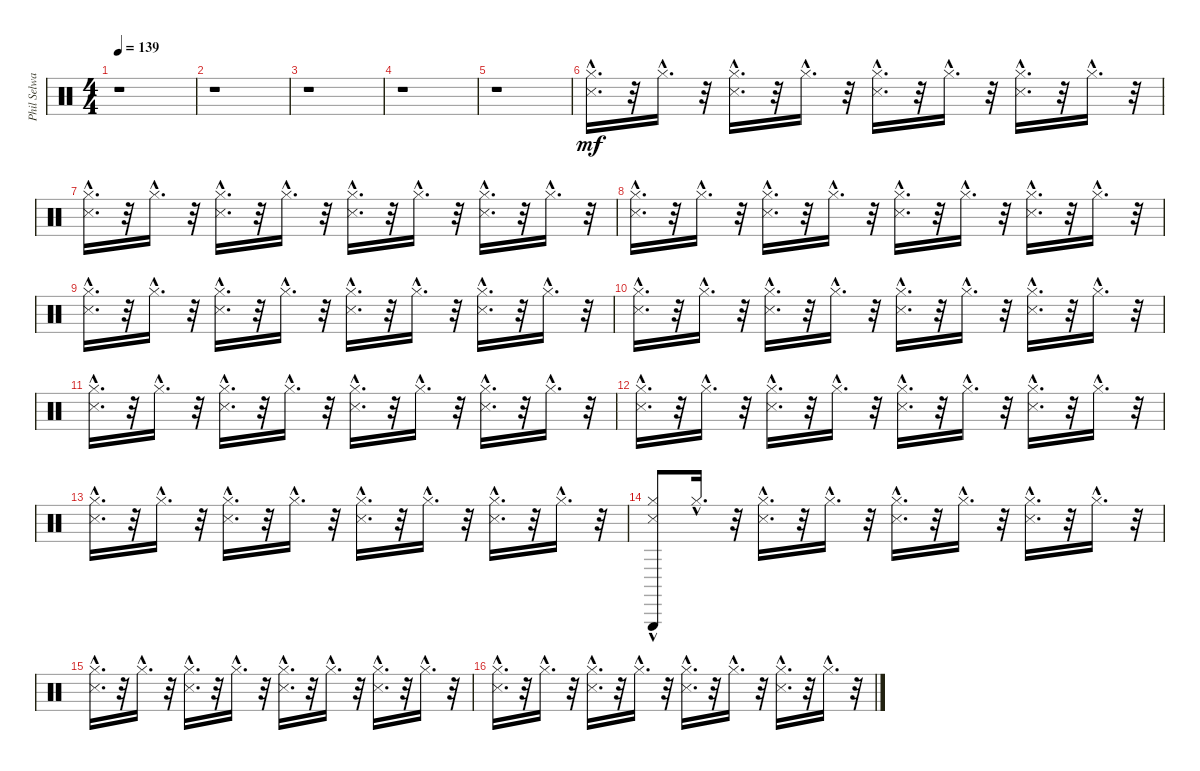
\track ("Phil Selway - Drums" "Phil Selwa") {instrument percussion}
\staff {score}
\articulation defaults
\ts (4 4)
\tempo 139
\clef neutral
\ks c
r.1{dy f} |
r.1 |
r.1 |
r.1 |
r.1 |
("Snare (side stick) 3"{hac} "Hi-Hat (closed)"{hac}).16{d dy mf} r.32 "Hi-Hat (closed)"{hac}.16{d} r.32 ("Snare (side stick) 3"{hac} "Hi-Hat (closed)"{hac}).16{d} r.32 "Hi-Hat (closed)"{hac}.16{d} r.32 ("Snare (side stick) 3"{hac} "Hi-Hat (closed)"{hac}).16{d} r.32 "Hi-Hat (closed)"{hac}.16{d} r.32 ("Snare (side stick) 3"{hac} "Hi-Hat (closed)"{hac}).16{d} r.32 "Hi-Hat (closed)"{hac}.16{d} r.32 |
("Hi-Hat (closed)"{hac} "Snare (side stick) 3"{hac}).16{d} r.32 "Hi-Hat (closed)"{hac}.16{d} r.32 ("Hi-Hat (closed)"{hac} "Snare (side stick) 3"{hac}).16{d} r.32 "Hi-Hat (closed)"{hac}.16{d} r.32 ("Hi-Hat (closed)"{hac} "Snare (side stick) 3"{hac}).16{d} r.32 "Hi-Hat (closed)"{hac}.16{d} r.32 ("Hi-Hat (closed)"{hac} "Snare (side stick) 3"{hac}).16{d} r.32 "Hi-Hat (closed)"{hac}.16{d} r.32 |
("Hi-Hat (closed)"{hac} "Snare (side stick) 3"{hac}).16{d} r.32 "Hi-Hat (closed)"{hac}.16{d} r.32 ("Hi-Hat (closed)"{hac} "Snare (side stick) 3"{hac}).16{d} r.32 "Hi-Hat (closed)"{hac}.16{d} r.32 ("Hi-Hat (closed)"{hac} "Snare (side stick) 3"{hac}).16{d} r.32 "Hi-Hat (closed)"{hac}.16{d} r.32 ("Hi-Hat (closed)"{hac} "Snare (side stick) 3"{hac}).16{d} r.32 "Hi-Hat (closed)"{hac}.16{d} r.32 |
("Hi-Hat (closed)"{hac} "Snare (side stick) 3"{hac}).16{d} r.32 "Hi-Hat (closed)"{hac}.16{d} r.32 ("Hi-Hat (closed)"{hac} "Snare (side stick) 3"{hac}).16{d} r.32 "Hi-Hat (closed)"{hac}.16{d} r.32 ("Hi-Hat (closed)"{hac} "Snare (side stick) 3"{hac}).16{d} r.32 "Hi-Hat (closed)"{hac}.16{d} r.32 ("Hi-Hat (closed)"{hac} "Snare (side stick) 3"{hac}).16{d} r.32 "Hi-Hat (closed)"{hac}.16{d} r.32 |
("Hi-Hat (closed)"{hac} "Snare (side stick) 3"{hac}).16{d} r.32 "Hi-Hat (closed)"{hac}.16{d} r.32 ("Hi-Hat (closed)"{hac} "Snare (side stick) 3"{hac}).16{d} r.32 "Hi-Hat (closed)"{hac}.16{d} r.32 ("Hi-Hat (closed)"{hac} "Snare (side stick) 3"{hac}).16{d} r.32 "Hi-Hat (closed)"{hac}.16{d} r.32 ("Hi-Hat (closed)"{hac} "Snare (side stick) 3"{hac}).16{d} r.32 "Hi-Hat (closed)"{hac}.16{d} r.32 |
("Snare (side stick) 3"{hac} "Hi-Hat (closed)"{hac}).16{d} r.32 "Hi-Hat (closed)"{hac}.16{d} r.32 ("Snare (side stick) 3"{hac} "Hi-Hat (closed)"{hac}).16{d} r.32 "Hi-Hat (closed)"{hac}.16{d} r.32 ("Snare (side stick) 3"{hac} "Hi-Hat (closed)"{hac}).16{d} r.32 "Hi-Hat (closed)"{hac}.16{d} r.32 ("Snare (side stick) 3"{hac} "Hi-Hat (closed)"{hac}).16{d} r.32 "Hi-Hat (closed)"{hac}.16{d} r.32 |
("Snare (side stick) 3"{hac} "Hi-Hat (closed)"{hac}).16{d} r.32 "Hi-Hat (closed)"{hac}.16{d} r.32 ("Snare (side stick) 3"{hac} "Hi-Hat (closed)"{hac}).16{d} r.32 "Hi-Hat (closed)"{hac}.16{d} r.32 ("Snare (side stick) 3"{hac} "Hi-Hat (closed)"{hac}).16{d} r.32 "Hi-Hat (closed)"{hac}.16{d} r.32 ("Snare (side stick) 3"{hac} "Hi-Hat (closed)"{hac}).16{d} r.32 "Hi-Hat (closed)"{hac}.16{d} r.32 |
("Snare (side stick) 3"{hac} "Hi-Hat (closed)"{hac}).16{d} r.32 "Hi-Hat (closed)"{hac}.16{d} r.32 ("Snare (side stick) 3"{hac} "Hi-Hat (closed)"{hac}).16{d} r.32 "Hi-Hat (closed)"{hac}.16{d} r.32 ("Snare (side stick) 3"{hac} "Hi-Hat (closed)"{hac}).16{d} r.32 "Hi-Hat (closed)"{hac}.16{d} r.32 ("Snare (side stick) 3"{hac} "Hi-Hat (closed)"{hac}).16{d} r.32 "Hi-Hat (closed)"{hac}.16{d} r.32 |
("Triangle (hit)"{hac} "Snare (side stick) 3"{hac} "Hi-Hat (closed)"{hac}).8 "Hi-Hat (closed)"{hac}.16{d} r.32 ("Snare (side stick) 3"{hac} "Hi-Hat (closed)"{hac}).16{d} r.32 "Hi-Hat (closed)"{hac}.16{d} r.32 ("Snare (side stick) 3"{hac} "Hi-Hat (closed)"{hac}).16{d} r.32 "Hi-Hat (closed)"{hac}.16{d} r.32 ("Snare (side stick) 3"{hac} "Hi-Hat (closed)"{hac}).16{d} r.32 "Hi-Hat (closed)"{hac}.16{d} r.32 |
("Hi-Hat (closed)"{hac} "Snare (side stick) 3"{hac}).16{d} r.32 "Hi-Hat (closed)"{hac}.16{d} r.32 ("Hi-Hat (closed)"{hac} "Snare (side stick) 3"{hac}).16{d} r.32 "Hi-Hat (closed)"{hac}.16{d} r.32 ("Hi-Hat (closed)"{hac} "Snare (side stick) 3"{hac}).16{d} r.32 "Hi-Hat (closed)"{hac}.16{d} r.32 ("Hi-Hat (closed)"{hac} "Snare (side stick) 3"{hac}).16{d} r.32 "Hi-Hat (closed)"{hac}.16{d} r.32 |
("Hi-Hat (closed)"{hac} "Snare (side stick) 3"{hac}).16{d} r.32 "Hi-Hat (closed)"{hac}.16{d} r.32 ("Hi-Hat (closed)"{hac} "Snare (side stick) 3"{hac}).16{d} r.32 "Hi-Hat (closed)"{hac}.16{d} r.32 ("Hi-Hat (closed)"{hac} "Snare (side stick) 3"{hac}).16{d} r.32 "Hi-Hat (closed)"{hac}.16{d} r.32 ("Hi-Hat (closed)"{hac} "Snare (side stick) 3"{hac}).16{d} r.32 "Hi-Hat (closed)"{hac}.16{d} r.32
